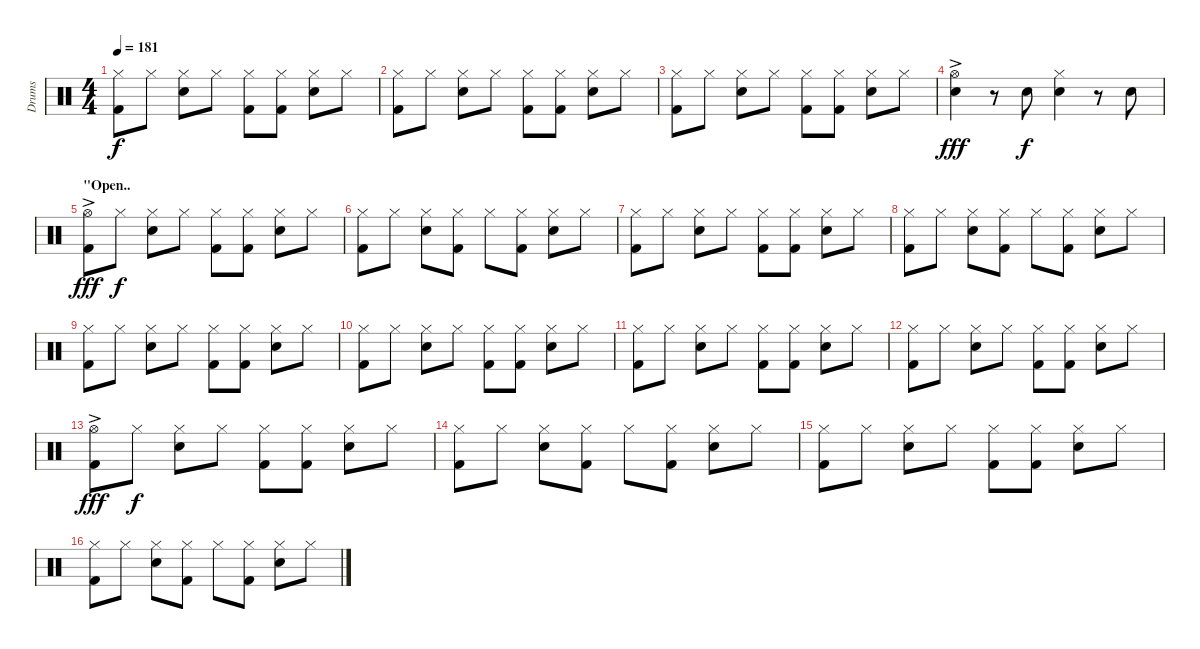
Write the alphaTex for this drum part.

\track ("Drums" "Drums") {instrument percussion}
\staff {score}
\articulation defaults
\ts (4 4)
\tempo 181
\clef neutral
\ks c
("Hi-Hat (closed)" "Kick (hit) 2").8{dy f} "Hi-Hat (closed)".8 ("Hi-Hat (closed)" "Snare (hit) 2").8 "Hi-Hat (closed)".8 ("Hi-Hat (closed)" "Kick (hit) 2").8 ("Hi-Hat (closed)" "Kick (hit) 2").8 ("Hi-Hat (closed)" "Snare (hit) 2").8 "Hi-Hat (closed)".8 |
("Hi-Hat (closed)" "Kick (hit) 2").8 "Hi-Hat (closed)".8 ("Hi-Hat (closed)" "Snare (hit) 2").8 "Hi-Hat (closed)".8 ("Hi-Hat (closed)" "Kick (hit) 2").8 ("Hi-Hat (closed)" "Kick (hit) 2").8 ("Hi-Hat (closed)" "Snare (hit) 2").8 "Hi-Hat (closed)".8 |
("Hi-Hat (closed)" "Kick (hit) 2").8 "Hi-Hat (closed)".8 ("Hi-Hat (closed)" "Snare (hit) 2").8 "Hi-Hat (closed)".8 ("Hi-Hat (closed)" "Kick (hit) 2").8 ("Hi-Hat (closed)" "Kick (hit) 2").8 ("Hi-Hat (closed)" "Snare (hit) 2").8 "Hi-Hat (closed)".8 |
("Hi-Hat (open)"{ac} "Snare (hit) 2").4{dy fff} r.8 "Snare (hit) 2".8{dy f} ("Hi-Hat (closed)" "Snare (hit) 2").4 r.8 "Snare (hit) 2".8 |
\section ("" "\"Open..")
("Hi-Hat (open)"{ac} "Kick (hit) 2").8{dy fff} "Hi-Hat (closed)".8{dy f} ("Hi-Hat (closed)" "Snare (hit) 2").8 "Hi-Hat (closed)".8 ("Hi-Hat (closed)" "Kick (hit) 2").8 ("Hi-Hat (closed)" "Kick (hit) 2").8 ("Hi-Hat (closed)" "Snare (hit) 2").8 "Hi-Hat (closed)".8 |
("Hi-Hat (closed)" "Kick (hit) 2").8 "Hi-Hat (closed)".8 ("Hi-Hat (closed)" "Snare (hit) 2").8 ("Hi-Hat (closed)" "Kick (hit) 2").8 "Hi-Hat (closed)".8 ("Hi-Hat (closed)" "Kick (hit) 2").8 ("Hi-Hat (closed)" "Snare (hit) 2").8 "Hi-Hat (closed)".8 |
("Hi-Hat (closed)" "Kick (hit) 2").8 "Hi-Hat (closed)".8 ("Hi-Hat (closed)" "Snare (hit) 2").8 "Hi-Hat (closed)".8 ("Hi-Hat (closed)" "Kick (hit) 2").8 ("Hi-Hat (closed)" "Kick (hit) 2").8 ("Hi-Hat (closed)" "Snare (hit) 2").8 "Hi-Hat (closed)".8 |
("Hi-Hat (closed)" "Kick (hit) 2").8 "Hi-Hat (closed)".8 ("Hi-Hat (closed)" "Snare (hit) 2").8 ("Hi-Hat (closed)" "Kick (hit) 2").8 "Hi-Hat (closed)".8 ("Hi-Hat (closed)" "Kick (hit) 2").8 ("Hi-Hat (closed)" "Snare (hit) 2").8 "Hi-Hat (closed)".8 |
("Hi-Hat (closed)" "Kick (hit) 2").8 "Hi-Hat (closed)".8 ("Hi-Hat (closed)" "Snare (hit) 2").8 "Hi-Hat (closed)".8 ("Hi-Hat (closed)" "Kick (hit) 2").8 ("Hi-Hat (closed)" "Kick (hit) 2").8 ("Hi-Hat (closed)" "Snare (hit) 2").8 "Hi-Hat (closed)".8 |
("Hi-Hat (closed)" "Kick (hit) 2").8 "Hi-Hat (closed)".8 ("Hi-Hat (closed)" "Snare (hit) 2").8 "Hi-Hat (closed)".8 ("Hi-Hat (closed)" "Kick (hit) 2").8 ("Hi-Hat (closed)" "Kick (hit) 2").8 ("Hi-Hat (closed)" "Snare (hit) 2").8 "Hi-Hat (closed)".8 |
("Hi-Hat (closed)" "Kick (hit) 2").8 "Hi-Hat (closed)".8 ("Hi-Hat (closed)" "Snare (hit) 2").8 "Hi-Hat (closed)".8 ("Hi-Hat (closed)" "Kick (hit) 2").8 ("Hi-Hat (closed)" "Kick (hit) 2").8 ("Hi-Hat (closed)" "Snare (hit) 2").8 "Hi-Hat (closed)".8 |
("Hi-Hat (closed)" "Kick (hit) 2").8 "Hi-Hat (closed)".8 ("Hi-Hat (closed)" "Snare (hit) 2").8 "Hi-Hat (closed)".8 ("Hi-Hat (closed)" "Kick (hit) 2").8 ("Hi-Hat (closed)" "Kick (hit) 2").8 ("Hi-Hat (closed)" "Snare (hit) 2").8 "Hi-Hat (closed)".8 |
("Hi-Hat (open)"{ac} "Kick (hit) 2").8{dy fff} "Hi-Hat (closed)".8{dy f} ("Hi-Hat (closed)" "Snare (hit) 2").8 "Hi-Hat (closed)".8 ("Hi-Hat (closed)" "Kick (hit) 2").8 ("Hi-Hat (closed)" "Kick (hit) 2").8 ("Hi-Hat (closed)" "Snare (hit) 2").8 "Hi-Hat (closed)".8 |
("Hi-Hat (closed)" "Kick (hit) 2").8 "Hi-Hat (closed)".8 ("Hi-Hat (closed)" "Snare (hit) 2").8 ("Hi-Hat (closed)" "Kick (hit) 2").8 "Hi-Hat (closed)".8 ("Hi-Hat (closed)" "Kick (hit) 2").8 ("Hi-Hat (closed)" "Snare (hit) 2").8 "Hi-Hat (closed)".8 |
("Hi-Hat (closed)" "Kick (hit) 2").8 "Hi-Hat (closed)".8 ("Hi-Hat (closed)" "Snare (hit) 2").8 "Hi-Hat (closed)".8 ("Hi-Hat (closed)" "Kick (hit) 2").8 ("Hi-Hat (closed)" "Kick (hit) 2").8 ("Hi-Hat (closed)" "Snare (hit) 2").8 "Hi-Hat (closed)".8 |
("Hi-Hat (closed)" "Kick (hit) 2").8 "Hi-Hat (closed)".8 ("Hi-Hat (closed)" "Snare (hit) 2").8 ("Hi-Hat (closed)" "Kick (hit) 2").8 "Hi-Hat (closed)".8 ("Hi-Hat (closed)" "Kick (hit) 2").8 ("Hi-Hat (closed)" "Snare (hit) 2").8 "Hi-Hat (closed)".8
